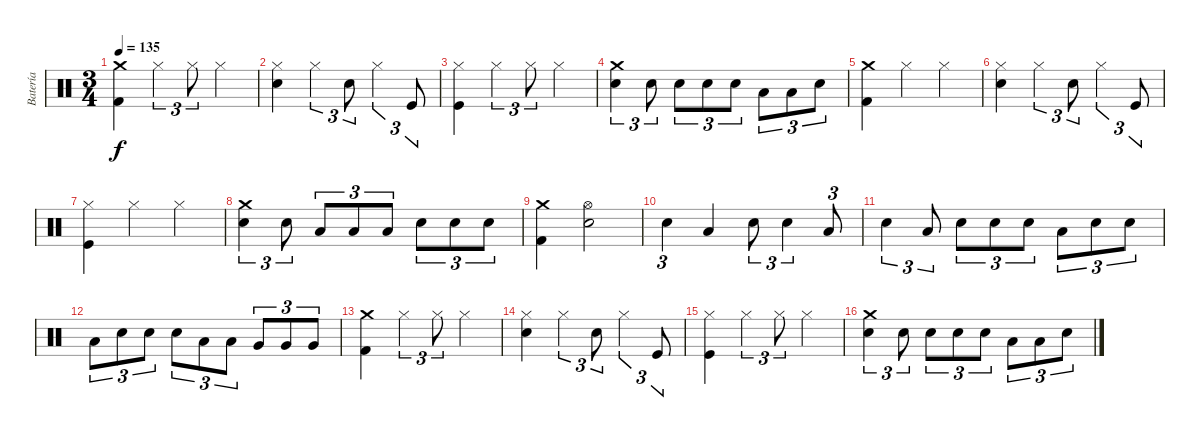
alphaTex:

\track ("Batería" "Batería") {instrument percussion}
\staff {score}
\articulation defaults
\ts (3 4)
\tempo 135
\clef neutral
\ks c
("Crash medium (hit)" "Kick (hit) 2").4{dy f} "Hi-Hat (closed)".4{tu (3 2)} "Hi-Hat (closed)".8{tu (3 2)} "Hi-Hat (closed)".4 |
("Hi-Hat (closed)" "Snare (hit) 2").4 "Hi-Hat (closed)".4{tu (3 2)} "Snare (hit) 2".8{tu (3 2)} "Hi-Hat (closed)".4{tu (3 2)} "Kick (hit)".8{tu (3 2)} |
("Hi-Hat (closed)" "Kick (hit)").4 "Hi-Hat (closed)".4{tu (3 2)} "Hi-Hat (closed)".8{tu (3 2)} "Hi-Hat (closed)".4 |
("Crash medium (hit)" "Snare (hit) 2").4{tu (3 2)} "Snare (hit) 2".8{tu (3 2)} "Snare (hit) 2".8{tu (3 2)} "Snare (hit) 2".8{tu (3 2)} "Snare (hit) 2".8{tu (3 2)} "Low Tom (hit)".8{tu (3 2)} "Low Tom (hit)".8{tu (3 2)} "Snare (hit) 2".8{tu (3 2)} |
("Crash medium (hit)" "Kick (hit) 2").4 "Hi-Hat (closed)".4 "Hi-Hat (closed)".4 |
("Hi-Hat (closed)" "Snare (hit) 2").4 "Hi-Hat (closed)".4{tu (3 2)} "Snare (hit) 2".8{tu (3 2)} "Hi-Hat (closed)".4{tu (3 2)} "Kick (hit)".8{tu (3 2)} |
("Hi-Hat (closed)" "Kick (hit)").4 "Hi-Hat (closed)".4 "Hi-Hat (closed)".4 |
("Crash medium (hit)" "Snare (hit) 2").4{tu (3 2)} "Snare (hit) 2".8{tu (3 2)} "Low Tom (hit)".8{tu (3 2)} "Low Tom (hit)".8{tu (3 2)} "Low Tom (hit)".8{tu (3 2)} "Snare (hit) 2".8{tu (3 2)} "Snare (hit) 2".8{tu (3 2)} "Snare (hit) 2".8{tu (3 2)} |
("Crash medium (hit)" "Kick (hit) 2").4 ("Hi-Hat (open)" "Snare (hit) 2").2 |
"Snare (hit) 2".4{tu (3 2)} "Low Tom (hit)".4 "Snare (hit) 2".8{tu (3 2)} "Snare (hit) 2".4{tu (3 2)} "Low Tom (hit)".8{tu (3 2)} |
"Snare (hit) 2".4{tu (3 2)} "Low Tom (hit)".8{tu (3 2)} "Snare (hit) 2".8{tu (3 2)} "Snare (hit) 2".8{tu (3 2)} "Snare (hit) 2".8{tu (3 2)} "Low Tom (hit)".8{tu (3 2)} "Snare (hit) 2".8{tu (3 2)} "Snare (hit) 2".8{tu (3 2)} |
"Low Tom (hit)".8{tu (3 2)} "Snare (hit) 2".8{tu (3 2)} "Snare (hit) 2".8{tu (3 2)} "Snare (hit) 2".8{tu (3 2)} "Low Tom (hit)".8{tu (3 2)} "Low Tom (hit)".8{tu (3 2)} "Very Low Tom (hit)".8{tu (3 2)} "Very Low Tom (hit)".8{tu (3 2)} "Very Low Tom (hit)".8{tu (3 2)} |
("Crash medium (hit)" "Kick (hit) 2").4 "Hi-Hat (closed)".4{tu (3 2)} "Hi-Hat (closed)".8{tu (3 2)} "Hi-Hat (closed)".4 |
("Hi-Hat (closed)" "Snare (hit) 2").4 "Hi-Hat (closed)".4{tu (3 2)} "Snare (hit) 2".8{tu (3 2)} "Hi-Hat (closed)".4{tu (3 2)} "Kick (hit)".8{tu (3 2)} |
("Hi-Hat (closed)" "Kick (hit)").4 "Hi-Hat (closed)".4{tu (3 2)} "Hi-Hat (closed)".8{tu (3 2)} "Hi-Hat (closed)".4 |
("Crash medium (hit)" "Snare (hit) 2").4{tu (3 2)} "Snare (hit) 2".8{tu (3 2)} "Snare (hit) 2".8{tu (3 2)} "Snare (hit) 2".8{tu (3 2)} "Snare (hit) 2".8{tu (3 2)} "Low Tom (hit)".8{tu (3 2)} "Low Tom (hit)".8{tu (3 2)} "Snare (hit) 2".8{tu (3 2)}
